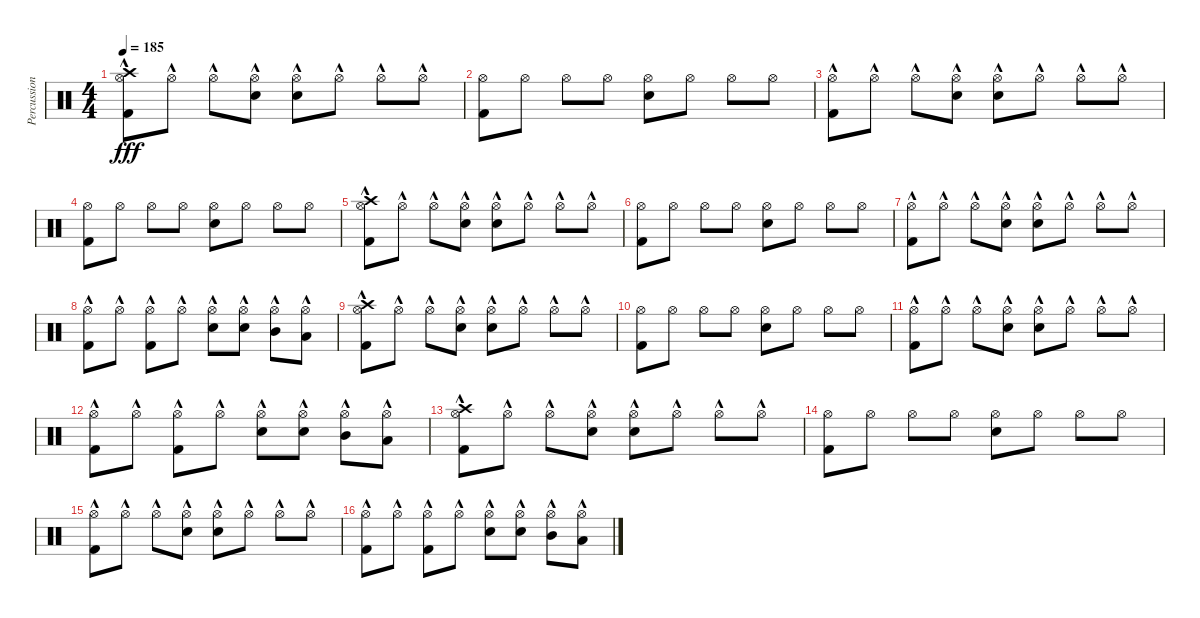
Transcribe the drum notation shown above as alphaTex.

\track ("Percussion" "Percussion") {instrument percussion}
\staff {score}
\articulation defaults
\ts (4 4)
\tempo 185
\clef neutral
\ks c
("Crash high (hit)" "Kick (hit) 2" "Hi-Hat (open)"{hac}).8{dy fff} "Hi-Hat (open)"{hac}.8 "Hi-Hat (open)"{hac}.8 ("Electric Snare (hit)" "Hi-Hat (open)"{hac}).8 ("Electric Snare (hit)" "Hi-Hat (open)"{hac}).8 "Hi-Hat (open)"{hac}.8 "Hi-Hat (open)"{hac}.8 "Hi-Hat (open)"{hac}.8 |
("Kick (hit) 2" "Hi-Hat (open)").8 "Hi-Hat (open)".8 "Hi-Hat (open)".8 "Hi-Hat (open)".8 ("Electric Snare (hit)" "Hi-Hat (open)").8 "Hi-Hat (open)".8 "Hi-Hat (open)".8 "Hi-Hat (open)".8 |
("Kick (hit) 2" "Hi-Hat (open)"{hac}).8 "Hi-Hat (open)"{hac}.8 "Hi-Hat (open)"{hac}.8 ("Electric Snare (hit)" "Hi-Hat (open)"{hac}).8 ("Electric Snare (hit)" "Hi-Hat (open)"{hac}).8 "Hi-Hat (open)"{hac}.8 "Hi-Hat (open)"{hac}.8 "Hi-Hat (open)"{hac}.8 |
("Kick (hit) 2" "Hi-Hat (open)").8 "Hi-Hat (open)".8 "Hi-Hat (open)".8 "Hi-Hat (open)".8 ("Electric Snare (hit)" "Hi-Hat (open)").8 "Hi-Hat (open)".8 "Hi-Hat (open)".8 "Hi-Hat (open)".8 |
("Crash high (hit)" "Kick (hit) 2" "Hi-Hat (open)"{hac}).8 "Hi-Hat (open)"{hac}.8 "Hi-Hat (open)"{hac}.8 ("Electric Snare (hit)" "Hi-Hat (open)"{hac}).8 ("Electric Snare (hit)" "Hi-Hat (open)"{hac}).8 "Hi-Hat (open)"{hac}.8 "Hi-Hat (open)"{hac}.8 "Hi-Hat (open)"{hac}.8 |
("Kick (hit) 2" "Hi-Hat (open)").8 "Hi-Hat (open)".8 "Hi-Hat (open)".8 "Hi-Hat (open)".8 ("Electric Snare (hit)" "Hi-Hat (open)").8 "Hi-Hat (open)".8 "Hi-Hat (open)".8 "Hi-Hat (open)".8 |
("Kick (hit) 2" "Hi-Hat (open)"{hac}).8 "Hi-Hat (open)"{hac}.8 "Hi-Hat (open)"{hac}.8 ("Electric Snare (hit)" "Hi-Hat (open)"{hac}).8 ("Electric Snare (hit)" "Hi-Hat (open)"{hac}).8 "Hi-Hat (open)"{hac}.8 "Hi-Hat (open)"{hac}.8 "Hi-Hat (open)"{hac}.8 |
("Kick (hit) 2" "Hi-Hat (open)"{hac}).8 "Hi-Hat (open)"{hac}.8 ("Kick (hit) 2" "Hi-Hat (open)"{hac}).8 "Hi-Hat (open)"{hac}.8 ("Electric Snare (hit)" "Hi-Hat (open)"{hac}).8 ("Electric Snare (hit)" "Hi-Hat (open)"{hac}).8 ("Mid Tom (hit)" "Hi-Hat (open)"{hac}).8 ("Low Floor Tom (hit)" "Hi-Hat (open)"{hac}).8 |
("Crash high (hit)" "Kick (hit) 2" "Hi-Hat (open)"{hac}).8 "Hi-Hat (open)"{hac}.8 "Hi-Hat (open)"{hac}.8 ("Electric Snare (hit)" "Hi-Hat (open)"{hac}).8 ("Electric Snare (hit)" "Hi-Hat (open)"{hac}).8 "Hi-Hat (open)"{hac}.8 "Hi-Hat (open)"{hac}.8 "Hi-Hat (open)"{hac}.8 |
("Kick (hit) 2" "Hi-Hat (open)").8 "Hi-Hat (open)".8 "Hi-Hat (open)".8 "Hi-Hat (open)".8 ("Electric Snare (hit)" "Hi-Hat (open)").8 "Hi-Hat (open)".8 "Hi-Hat (open)".8 "Hi-Hat (open)".8 |
("Kick (hit) 2" "Hi-Hat (open)"{hac}).8 "Hi-Hat (open)"{hac}.8 "Hi-Hat (open)"{hac}.8 ("Electric Snare (hit)" "Hi-Hat (open)"{hac}).8 ("Electric Snare (hit)" "Hi-Hat (open)"{hac}).8 "Hi-Hat (open)"{hac}.8 "Hi-Hat (open)"{hac}.8 "Hi-Hat (open)"{hac}.8 |
("Kick (hit) 2" "Hi-Hat (open)"{hac}).8 "Hi-Hat (open)"{hac}.8 ("Kick (hit) 2" "Hi-Hat (open)"{hac}).8 "Hi-Hat (open)"{hac}.8 ("Electric Snare (hit)" "Hi-Hat (open)"{hac}).8 ("Electric Snare (hit)" "Hi-Hat (open)"{hac}).8 ("Mid Tom (hit)" "Hi-Hat (open)"{hac}).8 ("Low Floor Tom (hit)" "Hi-Hat (open)"{hac}).8 |
("Crash high (hit)" "Kick (hit) 2" "Hi-Hat (open)"{hac}).8 "Hi-Hat (open)"{hac}.8 "Hi-Hat (open)"{hac}.8 ("Electric Snare (hit)" "Hi-Hat (open)"{hac}).8 ("Electric Snare (hit)" "Hi-Hat (open)"{hac}).8 "Hi-Hat (open)"{hac}.8 "Hi-Hat (open)"{hac}.8 "Hi-Hat (open)"{hac}.8 |
("Kick (hit) 2" "Hi-Hat (open)").8 "Hi-Hat (open)".8 "Hi-Hat (open)".8 "Hi-Hat (open)".8 ("Electric Snare (hit)" "Hi-Hat (open)").8 "Hi-Hat (open)".8 "Hi-Hat (open)".8 "Hi-Hat (open)".8 |
("Kick (hit) 2" "Hi-Hat (open)"{hac}).8 "Hi-Hat (open)"{hac}.8 "Hi-Hat (open)"{hac}.8 ("Electric Snare (hit)" "Hi-Hat (open)"{hac}).8 ("Electric Snare (hit)" "Hi-Hat (open)"{hac}).8 "Hi-Hat (open)"{hac}.8 "Hi-Hat (open)"{hac}.8 "Hi-Hat (open)"{hac}.8 |
("Kick (hit) 2" "Hi-Hat (open)"{hac}).8 "Hi-Hat (open)"{hac}.8 ("Kick (hit) 2" "Hi-Hat (open)"{hac}).8 "Hi-Hat (open)"{hac}.8 ("Electric Snare (hit)" "Hi-Hat (open)"{hac}).8 ("Electric Snare (hit)" "Hi-Hat (open)"{hac}).8 ("Mid Tom (hit)" "Hi-Hat (open)"{hac}).8 ("Low Floor Tom (hit)" "Hi-Hat (open)"{hac}).8
